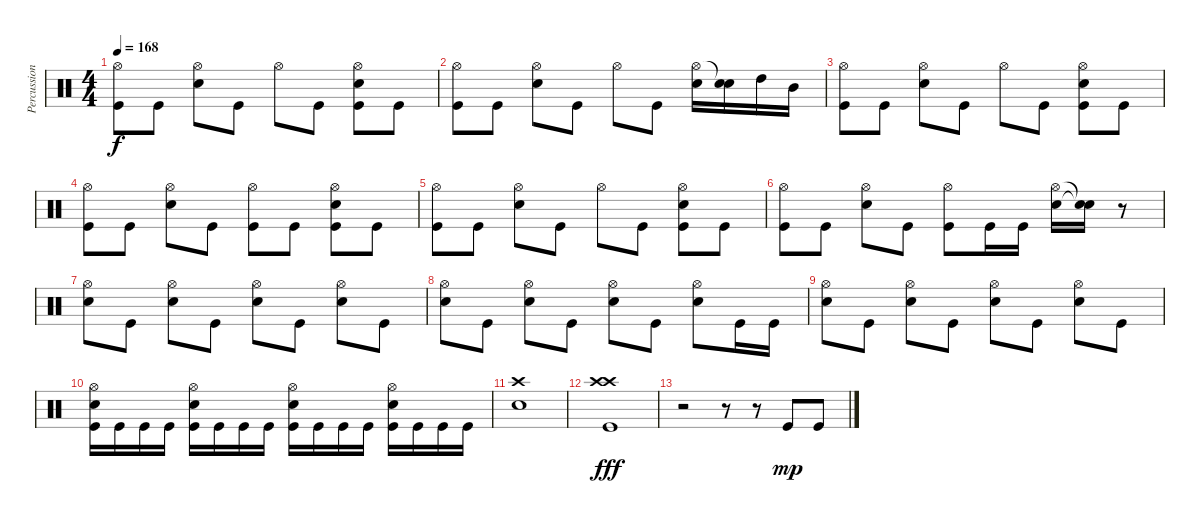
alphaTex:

\track ("Percussions" "Percussion") {instrument percussion}
\staff {score}
\articulation defaults
\ts (4 4)
\tempo 168
\clef neutral
\ks c
("Hi-Hat (open)" "Kick (hit)").8{dy f} "Kick (hit)".8 ("Hi-Hat (open)" "Snare (hit) 2").8 "Kick (hit)".8 "Hi-Hat (open)".8 "Kick (hit)".8 ("Hi-Hat (open)" "Kick (hit)" "Snare (hit) 2").8 "Kick (hit)".8 |
("Hi-Hat (open)" "Kick (hit)").8 "Kick (hit)".8 ("Hi-Hat (open)" "Snare (hit) 2").8 "Kick (hit)".8 "Hi-Hat (open)".8 "Kick (hit)".8 ("Hi-Hat (open)" "Snare (hit) 2").16 ("Snare (hit)"{t} "Snare (hit) 2").16 "High Tom (hit)".16 "Mid Tom (hit)".16 |
("Hi-Hat (open)" "Kick (hit)").8 "Kick (hit)".8 ("Hi-Hat (open)" "Snare (hit) 2").8 "Kick (hit)".8 "Hi-Hat (open)".8 "Kick (hit)".8 ("Hi-Hat (open)" "Kick (hit)" "Snare (hit) 2").8 "Kick (hit)".8 |
("Hi-Hat (open)" "Kick (hit)").8 "Kick (hit)".8 ("Hi-Hat (open)" "Snare (hit) 2").8 "Kick (hit)".8 ("Hi-Hat (open)" "Kick (hit)").8 "Kick (hit)".8 ("Hi-Hat (open)" "Kick (hit)" "Snare (hit) 2").8 "Kick (hit)".8 |
("Hi-Hat (open)" "Kick (hit)").8 "Kick (hit)".8 ("Hi-Hat (open)" "Snare (hit) 2").8 "Kick (hit)".8 "Hi-Hat (open)".8 "Kick (hit)".8 ("Hi-Hat (open)" "Kick (hit)" "Snare (hit) 2").8 "Kick (hit)".8 |
("Hi-Hat (open)" "Kick (hit)").8 "Kick (hit)".8 ("Hi-Hat (open)" "Snare (hit) 2").8 "Kick (hit)".8 ("Hi-Hat (open)" "Kick (hit)").8 "Kick (hit)".16 "Kick (hit)".16 ("Hi-Hat (open)" "Snare (hit) 2").16 ("Snare (hit)"{t} "Snare (hit)"{t}).16 r.8 |
("Hi-Hat (open)" "Snare (hit) 2").8 "Kick (hit)".8 ("Hi-Hat (open)" "Snare (hit) 2").8 "Kick (hit)".8 ("Hi-Hat (open)" "Snare (hit) 2").8 "Kick (hit)".8 ("Hi-Hat (open)" "Snare (hit) 2").8 "Kick (hit)".8 |
("Hi-Hat (open)" "Snare (hit) 2").8 "Kick (hit)".8 ("Hi-Hat (open)" "Snare (hit) 2").8 "Kick (hit)".8 ("Hi-Hat (open)" "Snare (hit) 2").8 "Kick (hit)".8 ("Hi-Hat (open)" "Snare (hit) 2").8 "Kick (hit)".16 "Kick (hit)".16 |
("Hi-Hat (open)" "Snare (hit) 2").8 "Kick (hit)".8 ("Hi-Hat (open)" "Snare (hit) 2").8 "Kick (hit)".8 ("Hi-Hat (open)" "Snare (hit) 2").8 "Kick (hit)".8 ("Hi-Hat (open)" "Snare (hit) 2").8 "Kick (hit)".8 |
("Hi-Hat (open)" "Snare (hit) 2" "Kick (hit)").16 "Kick (hit)".16 "Kick (hit)".16 "Kick (hit)".16 ("Hi-Hat (open)" "Snare (hit) 2" "Kick (hit)").16 "Kick (hit)".16 "Kick (hit)".16 "Kick (hit)".16 ("Hi-Hat (open)" "Snare (hit) 2" "Kick (hit)").16 "Kick (hit)".16 "Kick (hit)".16 "Kick (hit)".16 ("Hi-Hat (open)" "Snare (hit) 2" "Kick (hit)").16 "Kick (hit)".16 "Kick (hit)".16 "Kick (hit)".16 |
("Crash high (hit)" "Snare (hit) 2").1 |
("Crash high (hit)" "Crash high (hit)" "Kick (hit)").1{dy fff} |
r.2 r.8 r.8 "Kick (hit)".8{dy mp} "Kick (hit)".8
